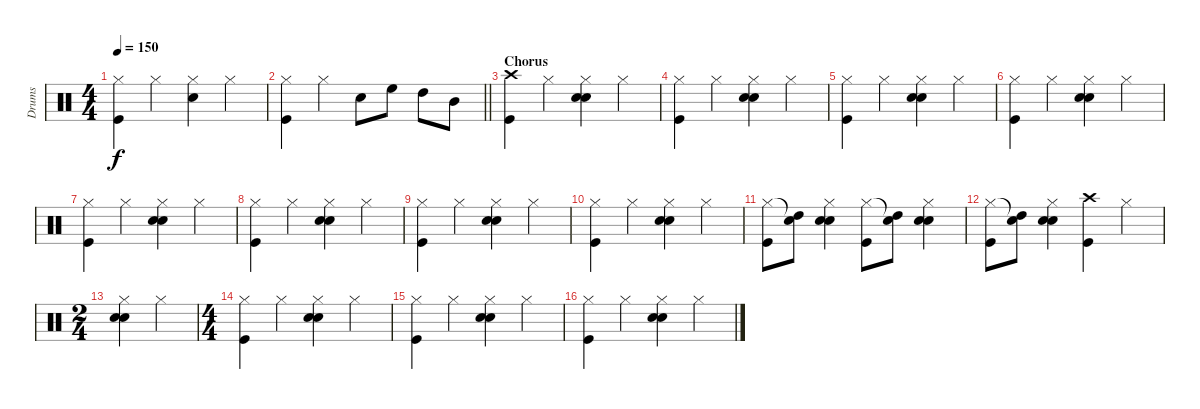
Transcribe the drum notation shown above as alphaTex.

\track ("Drums" "Drums") {instrument percussion}
\staff {score}
\articulation defaults
\ts (4 4)
\tempo 150
\clef neutral
\ks c
("Hi-Hat (closed)" "Kick (hit)").4{dy f} "Hi-Hat (closed)".4 ("Hi-Hat (closed)" "Snare (hit) 2").4 "Hi-Hat (closed)".4 |
\barLineRight lightlight
("Hi-Hat (closed)" "Kick (hit)").4 "Hi-Hat (closed)".4 "Snare (hit) 2".8 "High Floor Tom (hit)".8 "High Tom (hit)".8 "Mid Tom (hit)".8 |
\section ("" "Chorus")
("Crash high (hit)" "Kick (hit)").4 "Hi-Hat (closed)".4 ("Hi-Hat (closed)" "Hand Clap (hit)" "Snare (hit) 2").4 "Hi-Hat (closed)".4 |
("Hi-Hat (closed)" "Kick (hit)").4 "Hi-Hat (closed)".4 ("Hi-Hat (closed)" "Hand Clap (hit)" "Snare (hit) 2").4 "Hi-Hat (closed)".4 |
("Hi-Hat (closed)" "Kick (hit)").4 "Hi-Hat (closed)".4 ("Hi-Hat (closed)" "Hand Clap (hit)" "Snare (hit) 2").4 "Hi-Hat (closed)".4 |
("Hi-Hat (closed)" "Kick (hit)").4 "Hi-Hat (closed)".4 ("Hi-Hat (closed)" "Hand Clap (hit)" "Snare (hit) 2").4 "Hi-Hat (closed)".4 |
("Hi-Hat (closed)" "Kick (hit)").4 "Hi-Hat (closed)".4 ("Hi-Hat (closed)" "Hand Clap (hit)" "Snare (hit) 2").4 "Hi-Hat (closed)".4 |
("Hi-Hat (closed)" "Kick (hit)").4 "Hi-Hat (closed)".4 ("Hi-Hat (closed)" "Hand Clap (hit)" "Snare (hit) 2").4 "Hi-Hat (closed)".4 |
("Hi-Hat (closed)" "Kick (hit)").4 "Hi-Hat (closed)".4 ("Hi-Hat (closed)" "Hand Clap (hit)" "Snare (hit) 2").4 "Hi-Hat (closed)".4 |
("Hi-Hat (closed)" "Kick (hit)").4 "Hi-Hat (closed)".4 ("Hi-Hat (closed)" "Hand Clap (hit)" "Snare (hit) 2").4 "Hi-Hat (closed)".4 |
("Hi-Hat (closed)" "Kick (hit)").8 ("Snare (hit)"{t} "High Tom (hit)").8 ("Hi-Hat (closed)" "Hand Clap (hit)" "Snare (hit) 2").4 ("Hi-Hat (closed)" "Kick (hit)").8 ("Snare (hit)"{t} "High Tom (hit)").8 ("Hi-Hat (closed)" "Hand Clap (hit)" "Snare (hit) 2").4 |
("Hi-Hat (closed)" "Kick (hit)").8 ("Snare (hit)"{t} "High Tom (hit)").8 ("Hi-Hat (closed)" "Hand Clap (hit)" "Snare (hit) 2").4 ("Crash high (hit)" "Kick (hit)").4 "Hi-Hat (closed)".4 |
\ts (2 4)
("Hi-Hat (closed)" "Hand Clap (hit)" "Snare (hit) 2").4 "Hi-Hat (closed)".4 |
\ts (4 4)
("Hi-Hat (closed)" "Kick (hit)").4 "Hi-Hat (closed)".4 ("Hi-Hat (closed)" "Hand Clap (hit)" "Snare (hit) 2").4 "Hi-Hat (closed)".4 |
("Hi-Hat (closed)" "Kick (hit)").4 "Hi-Hat (closed)".4 ("Hi-Hat (closed)" "Hand Clap (hit)" "Snare (hit) 2").4 "Hi-Hat (closed)".4 |
("Hi-Hat (closed)" "Kick (hit)").4 "Hi-Hat (closed)".4 ("Hi-Hat (closed)" "Hand Clap (hit)" "Snare (hit) 2").4 "Hi-Hat (closed)".4
